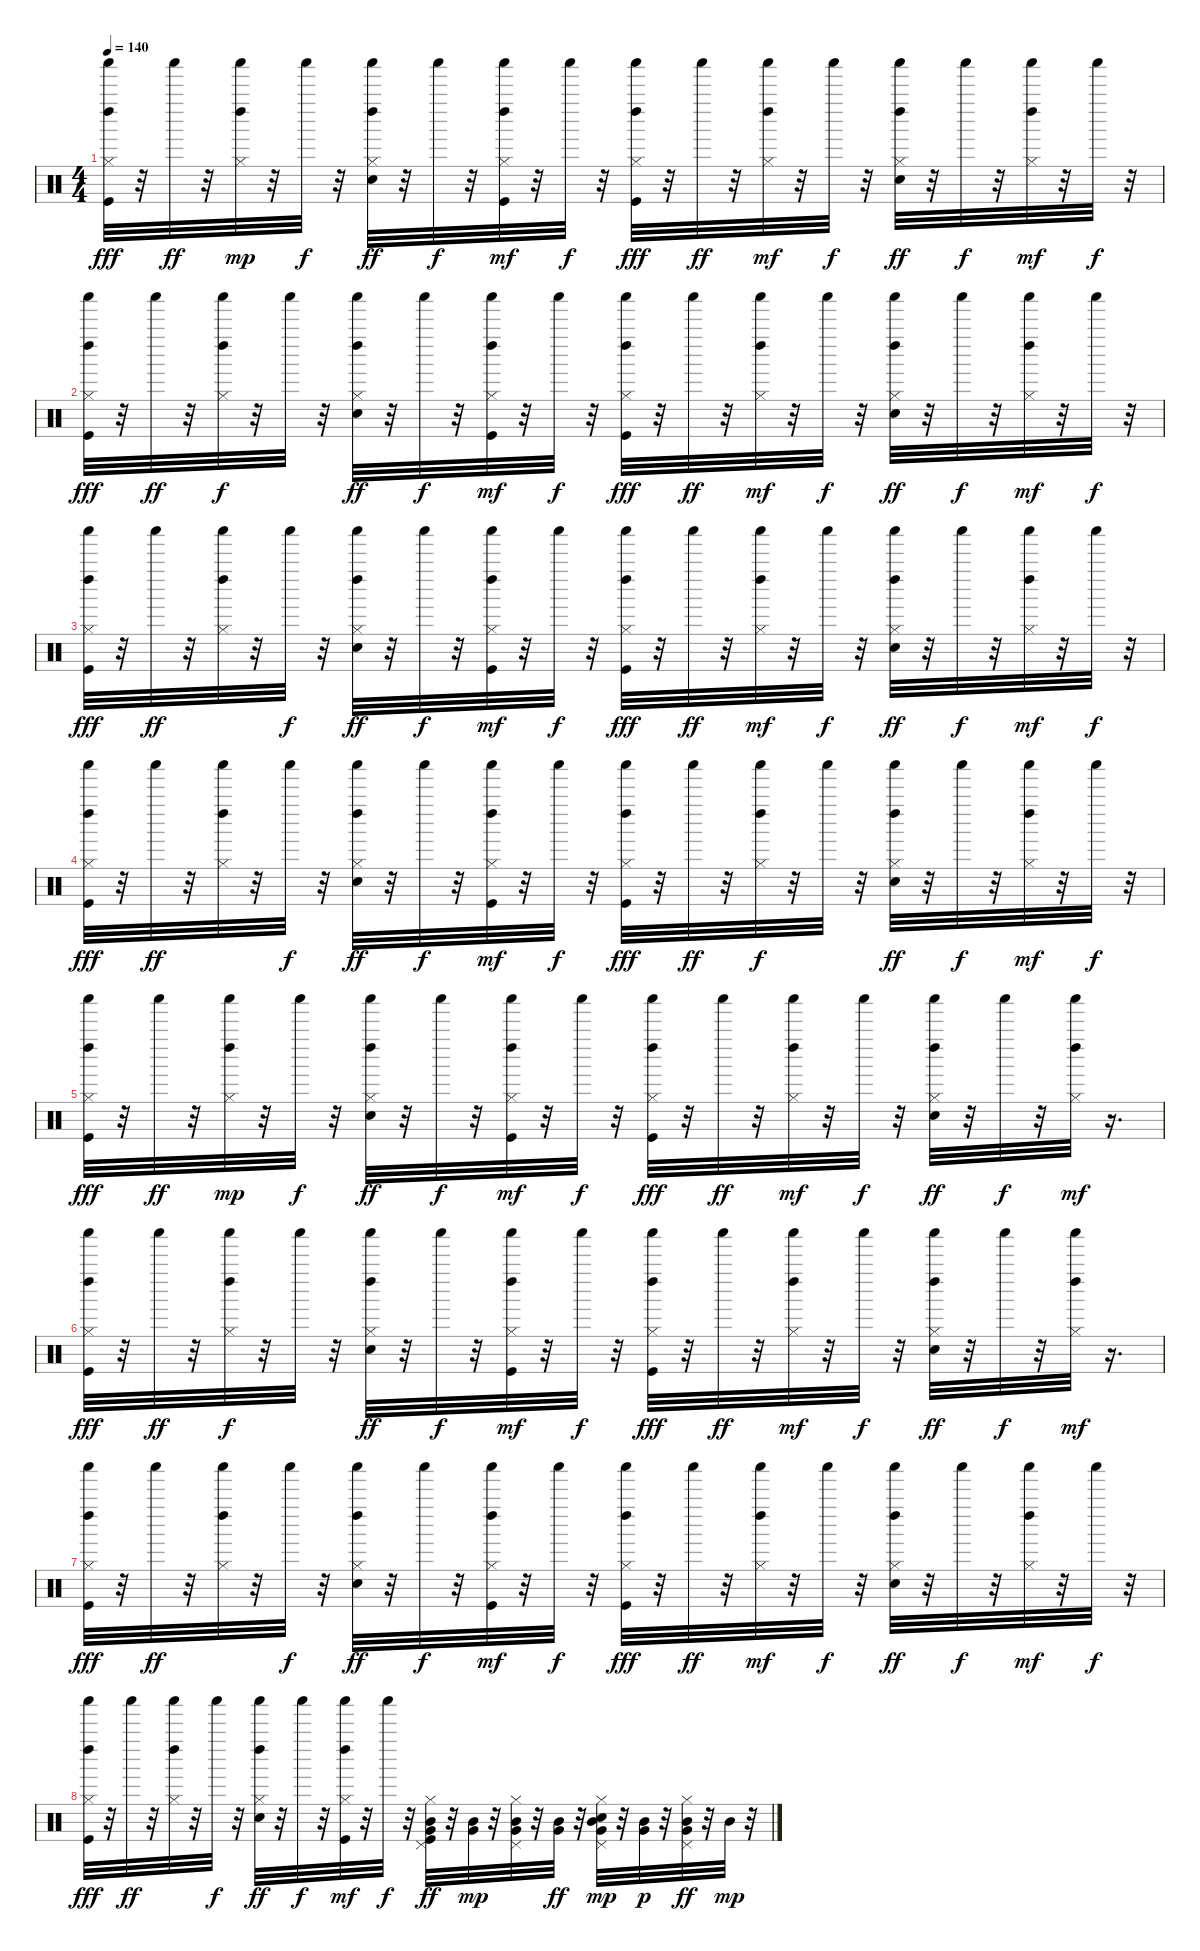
\track "" {instrument percussion}
\staff {score}
\articulation defaults
\ts (4 4)
\tempo 140
\clef neutral
\ks c
("Kick (hit)" "Hi-Hat (closed)" "Left Maraca (hit)" "Shaker (hit)").32{dy fff} r.32 "Shaker (hit)".32{dy ff} r.32 ("Hi-Hat (closed)" "Left Maraca (hit)" "Shaker (hit)").32{dy mp} r.32 "Shaker (hit)".32{dy f} r.32 ("Electric Snare (hit)" "Hi-Hat (closed)" "Left Maraca (hit)" "Shaker (hit)").32{dy ff} r.32 "Shaker (hit)".32{dy f} r.32 ("Kick (hit)" "Hi-Hat (closed)" "Left Maraca (hit)" "Shaker (hit)").32{dy mf} r.32 "Shaker (hit)".32{dy f} r.32 ("Kick (hit)" "Hi-Hat (closed)" "Left Maraca (hit)" "Shaker (hit)").32{dy fff} r.32 "Shaker (hit)".32{dy ff} r.32 ("Hi-Hat (closed)" "Left Maraca (hit)" "Shaker (hit)").32{dy mf} r.32 "Shaker (hit)".32{dy f} r.32 ("Electric Snare (hit)" "Hi-Hat (closed)" "Left Maraca (hit)" "Shaker (hit)").32{dy ff} r.32 "Shaker (hit)".32{dy f} r.32 ("Hi-Hat (closed)" "Left Maraca (hit)" "Shaker (hit)").32{dy mf} r.32 "Shaker (hit)".32{dy f} r.32 |
("Kick (hit)" "Hi-Hat (closed)" "Left Maraca (hit)" "Shaker (hit)").32{dy fff} r.32 "Shaker (hit)".32{dy ff} r.32 ("Hi-Hat (closed)" "Left Maraca (hit)" "Shaker (hit)").32{dy f} r.32 "Shaker (hit)".32 r.32 ("Electric Snare (hit)" "Hi-Hat (closed)" "Left Maraca (hit)" "Shaker (hit)").32{dy ff} r.32 "Shaker (hit)".32{dy f} r.32 ("Kick (hit)" "Hi-Hat (closed)" "Left Maraca (hit)" "Shaker (hit)").32{dy mf} r.32 "Shaker (hit)".32{dy f} r.32 ("Kick (hit)" "Hi-Hat (closed)" "Left Maraca (hit)" "Shaker (hit)").32{dy fff} r.32 "Shaker (hit)".32{dy ff} r.32 ("Hi-Hat (closed)" "Left Maraca (hit)" "Shaker (hit)").32{dy mf} r.32 "Shaker (hit)".32{dy f} r.32 ("Electric Snare (hit)" "Hi-Hat (closed)" "Left Maraca (hit)" "Shaker (hit)").32{dy ff} r.32 "Shaker (hit)".32{dy f} r.32 ("Hi-Hat (closed)" "Left Maraca (hit)" "Shaker (hit)").32{dy mf} r.32 "Shaker (hit)".32{dy f} r.32 |
("Kick (hit)" "Hi-Hat (closed)" "Left Maraca (hit)" "Shaker (hit)").32{dy fff} r.32 "Shaker (hit)".32{dy ff} r.32 ("Hi-Hat (closed)" "Left Maraca (hit)" "Shaker (hit)").32 r.32 "Shaker (hit)".32{dy f} r.32 ("Electric Snare (hit)" "Hi-Hat (closed)" "Left Maraca (hit)" "Shaker (hit)").32{dy ff} r.32 "Shaker (hit)".32{dy f} r.32 ("Kick (hit)" "Hi-Hat (closed)" "Left Maraca (hit)" "Shaker (hit)").32{dy mf} r.32 "Shaker (hit)".32{dy f} r.32 ("Kick (hit)" "Hi-Hat (closed)" "Left Maraca (hit)" "Shaker (hit)").32{dy fff} r.32 "Shaker (hit)".32{dy ff} r.32 ("Hi-Hat (closed)" "Left Maraca (hit)" "Shaker (hit)").32{dy mf} r.32 "Shaker (hit)".32{dy f} r.32 ("Electric Snare (hit)" "Hi-Hat (closed)" "Left Maraca (hit)" "Shaker (hit)").32{dy ff} r.32 "Shaker (hit)".32{dy f} r.32 ("Hi-Hat (closed)" "Left Maraca (hit)" "Shaker (hit)").32{dy mf} r.32 "Shaker (hit)".32{dy f} r.32 |
("Kick (hit)" "Hi-Hat (closed)" "Left Maraca (hit)" "Shaker (hit)").32{dy fff} r.32 "Shaker (hit)".32{dy ff} r.32 ("Hi-Hat (closed)" "Left Maraca (hit)" "Shaker (hit)").32 r.32 "Shaker (hit)".32{dy f} r.32 ("Electric Snare (hit)" "Hi-Hat (closed)" "Left Maraca (hit)" "Shaker (hit)").32{dy ff} r.32 "Shaker (hit)".32{dy f} r.32 ("Kick (hit)" "Hi-Hat (closed)" "Left Maraca (hit)" "Shaker (hit)").32{dy mf} r.32 "Shaker (hit)".32{dy f} r.32 ("Kick (hit)" "Hi-Hat (closed)" "Left Maraca (hit)" "Shaker (hit)").32{dy fff} r.32 "Shaker (hit)".32{dy ff} r.32 ("Hi-Hat (closed)" "Left Maraca (hit)" "Shaker (hit)").32{dy f} r.32 "Shaker (hit)".32 r.32 ("Electric Snare (hit)" "Hi-Hat (closed)" "Left Maraca (hit)" "Shaker (hit)").32{dy ff} r.32 "Shaker (hit)".32{dy f} r.32 ("Hi-Hat (closed)" "Left Maraca (hit)" "Shaker (hit)").32{dy mf} r.32 "Shaker (hit)".32{dy f} r.32 |
("Kick (hit)" "Hi-Hat (closed)" "Left Maraca (hit)" "Shaker (hit)").32{dy fff} r.32 "Shaker (hit)".32{dy ff} r.32 ("Hi-Hat (closed)" "Left Maraca (hit)" "Shaker (hit)").32{dy mp} r.32 "Shaker (hit)".32{dy f} r.32 ("Electric Snare (hit)" "Hi-Hat (closed)" "Left Maraca (hit)" "Shaker (hit)").32{dy ff} r.32 "Shaker (hit)".32{dy f} r.32 ("Kick (hit)" "Hi-Hat (closed)" "Left Maraca (hit)" "Shaker (hit)").32{dy mf} r.32 "Shaker (hit)".32{dy f} r.32 ("Kick (hit)" "Hi-Hat (closed)" "Left Maraca (hit)" "Shaker (hit)").32{dy fff} r.32 "Shaker (hit)".32{dy ff} r.32 ("Hi-Hat (closed)" "Left Maraca (hit)" "Shaker (hit)").32{dy mf} r.32 "Shaker (hit)".32{dy f} r.32 ("Electric Snare (hit)" "Hi-Hat (closed)" "Left Maraca (hit)" "Shaker (hit)").32{dy ff} r.32 "Shaker (hit)".32{dy f} r.32 ("Hi-Hat (closed)" "Left Maraca (hit)" "Shaker (hit)").32{dy mf} r.16{d} |
("Kick (hit)" "Hi-Hat (closed)" "Left Maraca (hit)" "Shaker (hit)").32{dy fff} r.32 "Shaker (hit)".32{dy ff} r.32 ("Hi-Hat (closed)" "Left Maraca (hit)" "Shaker (hit)").32{dy f} r.32 "Shaker (hit)".32 r.32 ("Electric Snare (hit)" "Hi-Hat (closed)" "Left Maraca (hit)" "Shaker (hit)").32{dy ff} r.32 "Shaker (hit)".32{dy f} r.32 ("Kick (hit)" "Hi-Hat (closed)" "Left Maraca (hit)" "Shaker (hit)").32{dy mf} r.32 "Shaker (hit)".32{dy f} r.32 ("Kick (hit)" "Hi-Hat (closed)" "Left Maraca (hit)" "Shaker (hit)").32{dy fff} r.32 "Shaker (hit)".32{dy ff} r.32 ("Hi-Hat (closed)" "Left Maraca (hit)" "Shaker (hit)").32{dy mf} r.32 "Shaker (hit)".32{dy f} r.32 ("Electric Snare (hit)" "Hi-Hat (closed)" "Left Maraca (hit)" "Shaker (hit)").32{dy ff} r.32 "Shaker (hit)".32{dy f} r.32 ("Hi-Hat (closed)" "Left Maraca (hit)" "Shaker (hit)").32{dy mf} r.16{d} |
("Kick (hit)" "Hi-Hat (closed)" "Left Maraca (hit)" "Shaker (hit)").32{dy fff} r.32 "Shaker (hit)".32{dy ff} r.32 ("Hi-Hat (closed)" "Left Maraca (hit)" "Shaker (hit)").32 r.32 "Shaker (hit)".32{dy f} r.32 ("Electric Snare (hit)" "Hi-Hat (closed)" "Left Maraca (hit)" "Shaker (hit)").32{dy ff} r.32 "Shaker (hit)".32{dy f} r.32 ("Kick (hit)" "Hi-Hat (closed)" "Left Maraca (hit)" "Shaker (hit)").32{dy mf} r.32 "Shaker (hit)".32{dy f} r.32 ("Kick (hit)" "Hi-Hat (closed)" "Left Maraca (hit)" "Shaker (hit)").32{dy fff} r.32 "Shaker (hit)".32{dy ff} r.32 ("Hi-Hat (closed)" "Left Maraca (hit)" "Shaker (hit)").32{dy mf} r.32 "Shaker (hit)".32{dy f} r.32 ("Electric Snare (hit)" "Hi-Hat (closed)" "Left Maraca (hit)" "Shaker (hit)").32{dy ff} r.32 "Shaker (hit)".32{dy f} r.32 ("Hi-Hat (closed)" "Left Maraca (hit)" "Shaker (hit)").32{dy mf} r.32 "Shaker (hit)".32{dy f} r.32 |
("Kick (hit)" "Hi-Hat (closed)" "Left Maraca (hit)" "Shaker (hit)").32{dy fff} r.32 "Shaker (hit)".32{dy ff} r.32 ("Hi-Hat (closed)" "Left Maraca (hit)" "Shaker (hit)").32 r.32 "Shaker (hit)".32{dy f} r.32 ("Electric Snare (hit)" "Hi-Hat (closed)" "Left Maraca (hit)" "Shaker (hit)").32{dy ff} r.32 "Shaker (hit)".32{dy f} r.32 ("Kick (hit)" "Hi-Hat (closed)" "Left Maraca (hit)" "Shaker (hit)").32{dy mf} r.32 "Shaker (hit)".32{dy f} r.32 ("Kick (hit)" "Hi-Hat (closed)" "Very Low Tom (hit)" "Pedal Hi-Hat (hit)" "Mid Tom (hit)").32{dy ff} r.32 ("Mid Tom (hit)" "Very Low Tom (hit)").32{dy mp} r.32 ("Pedal Hi-Hat (hit)" "Mid Tom (hit)" "Hi-Hat (closed)" "Very Low Tom (hit)").32 r.32 ("Mid Tom (hit)" "Very Low Tom (hit)").32{dy ff} r.32 ("Pedal Hi-Hat (hit)" "Mid Tom (hit)" "Electric Snare (hit)" "Hi-Hat (closed)" "Very Low Tom (hit)").32{dy mp} r.32 ("Mid Tom (hit)" "Very Low Tom (hit)").32{dy p} r.32 ("Pedal Hi-Hat (hit)" "Mid Tom (hit)" "Hi-Hat (closed)" "Very Low Tom (hit)").32{dy ff} r.32 "Mid Tom (hit)".32{dy mp} r.32
